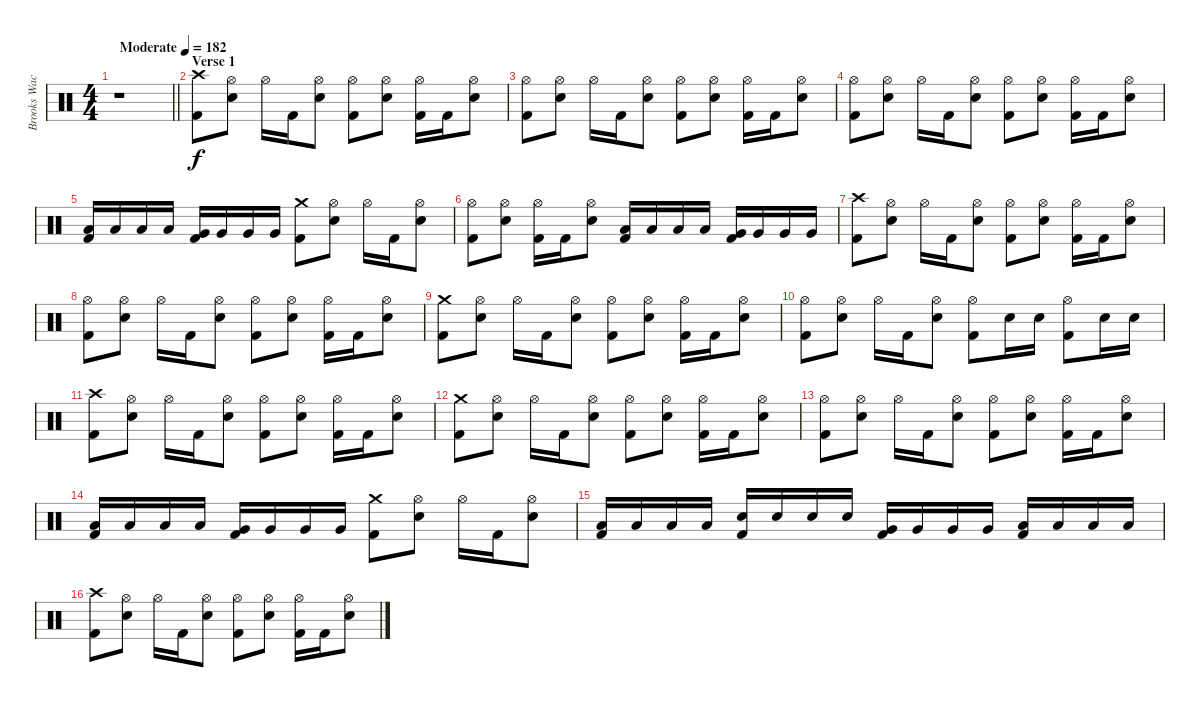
\track ("Brooks Wackerman" "Brooks Wac") {instrument percussion}
\staff {score}
\articulation defaults
\ts (4 4)
\tempo (182 "Moderate")
\clef neutral
\barLineRight lightlight
\ks c
r.1{dy f} |
\section ("" "Verse 1")
("Crash high (hit)" "Kick (hit) 2").8 ("Hi-Hat (open)" "Electric Snare (hit)").8 "Hi-Hat (open)".16 "Kick (hit) 2".16 ("Hi-Hat (open)" "Electric Snare (hit)").8 ("Hi-Hat (open)" "Kick (hit) 2").8 ("Hi-Hat (open)" "Electric Snare (hit)").8 ("Hi-Hat (open)" "Kick (hit) 2").16 "Kick (hit) 2".16 ("Hi-Hat (open)" "Electric Snare (hit)").8 |
("Hi-Hat (open)" "Kick (hit) 2").8 ("Hi-Hat (open)" "Electric Snare (hit)").8 "Hi-Hat (open)".16 "Kick (hit) 2".16 ("Hi-Hat (open)" "Electric Snare (hit)").8 ("Hi-Hat (open)" "Kick (hit) 2").8 ("Hi-Hat (open)" "Electric Snare (hit)").8 ("Hi-Hat (open)" "Kick (hit) 2").16 "Kick (hit) 2".16 ("Hi-Hat (open)" "Electric Snare (hit)").8 |
("Hi-Hat (open)" "Kick (hit) 2").8 ("Hi-Hat (open)" "Electric Snare (hit)").8 "Hi-Hat (open)".16 "Kick (hit) 2".16 ("Hi-Hat (open)" "Electric Snare (hit)").8 ("Hi-Hat (open)" "Kick (hit) 2").8 ("Hi-Hat (open)" "Electric Snare (hit)").8 ("Hi-Hat (open)" "Kick (hit) 2").16 "Kick (hit) 2".16 ("Hi-Hat (open)" "Electric Snare (hit)").8 |
("Low Tom (hit)" "Kick (hit) 2").16 "Low Tom (hit)".16 "Low Tom (hit)".16 "Low Tom (hit)".16 ("Very Low Tom (hit)" "Kick (hit) 2").16 "Very Low Tom (hit)".16 "Very Low Tom (hit)".16 "Very Low Tom (hit)".16 ("Crash medium (hit)" "Kick (hit) 2").8 ("Hi-Hat (open)" "Electric Snare (hit)").8 "Hi-Hat (open)".16 "Kick (hit) 2".16 ("Hi-Hat (open)" "Electric Snare (hit)").8 |
("Hi-Hat (open)" "Kick (hit) 2").8 ("Hi-Hat (open)" "Electric Snare (hit)").8 ("Hi-Hat (open)" "Kick (hit) 2").16 "Kick (hit) 2".16 ("Hi-Hat (open)" "Electric Snare (hit)").8 ("Low Tom (hit)" "Kick (hit) 2").16 "Low Tom (hit)".16 "Low Tom (hit)".16 "Low Tom (hit)".16 ("Very Low Tom (hit)" "Kick (hit) 2").16 "Very Low Tom (hit)".16 "Very Low Tom (hit)".16 "Very Low Tom (hit)".16 |
("Crash high (hit)" "Kick (hit) 2").8 ("Hi-Hat (open)" "Electric Snare (hit)").8 "Hi-Hat (open)".16 "Kick (hit) 2".16 ("Hi-Hat (open)" "Electric Snare (hit)").8 ("Hi-Hat (open)" "Kick (hit) 2").8 ("Hi-Hat (open)" "Electric Snare (hit)").8 ("Hi-Hat (open)" "Kick (hit) 2").16 "Kick (hit) 2".16 ("Hi-Hat (open)" "Electric Snare (hit)").8 |
("Hi-Hat (open)" "Kick (hit) 2").8 ("Hi-Hat (open)" "Electric Snare (hit)").8 "Hi-Hat (open)".16 "Kick (hit) 2".16 ("Hi-Hat (open)" "Electric Snare (hit)").8 ("Hi-Hat (open)" "Kick (hit) 2").8 ("Hi-Hat (open)" "Electric Snare (hit)").8 ("Hi-Hat (open)" "Kick (hit) 2").16 "Kick (hit) 2".16 ("Hi-Hat (open)" "Electric Snare (hit)").8 |
("Crash medium (hit)" "Kick (hit) 2").8 ("Hi-Hat (open)" "Electric Snare (hit)").8 "Hi-Hat (open)".16 "Kick (hit) 2".16 ("Hi-Hat (open)" "Electric Snare (hit)").8 ("Hi-Hat (open)" "Kick (hit) 2").8 ("Hi-Hat (open)" "Electric Snare (hit)").8 ("Hi-Hat (open)" "Kick (hit) 2").16 "Kick (hit) 2".16 ("Hi-Hat (open)" "Electric Snare (hit)").8 |
("Hi-Hat (open)" "Kick (hit) 2").8 ("Hi-Hat (open)" "Electric Snare (hit)").8 "Hi-Hat (open)".16 "Kick (hit) 2".16 ("Hi-Hat (open)" "Electric Snare (hit)").8 ("Hi-Hat (open)" "Kick (hit) 2").8 "Electric Snare (hit)".16 "Electric Snare (hit)".16 ("Hi-Hat (open)" "Kick (hit) 2").8 "Electric Snare (hit)".16 "Electric Snare (hit)".16 |
("Crash high (hit)" "Kick (hit) 2").8 ("Hi-Hat (open)" "Electric Snare (hit)").8 "Hi-Hat (open)".16 "Kick (hit) 2".16 ("Hi-Hat (open)" "Electric Snare (hit)").8 ("Hi-Hat (open)" "Kick (hit) 2").8 ("Hi-Hat (open)" "Electric Snare (hit)").8 ("Hi-Hat (open)" "Kick (hit) 2").16 "Kick (hit) 2".16 ("Hi-Hat (open)" "Electric Snare (hit)").8 |
("Crash medium (hit)" "Kick (hit) 2").8 ("Hi-Hat (open)" "Electric Snare (hit)").8 "Hi-Hat (open)".16 "Kick (hit) 2".16 ("Hi-Hat (open)" "Electric Snare (hit)").8 ("Hi-Hat (open)" "Kick (hit) 2").8 ("Hi-Hat (open)" "Electric Snare (hit)").8 ("Hi-Hat (open)" "Kick (hit) 2").16 "Kick (hit) 2".16 ("Hi-Hat (open)" "Electric Snare (hit)").8 |
("Hi-Hat (open)" "Kick (hit) 2").8 ("Hi-Hat (open)" "Electric Snare (hit)").8 "Hi-Hat (open)".16 "Kick (hit) 2".16 ("Hi-Hat (open)" "Electric Snare (hit)").8 ("Hi-Hat (open)" "Kick (hit) 2").8 ("Hi-Hat (open)" "Electric Snare (hit)").8 ("Hi-Hat (open)" "Kick (hit) 2").16 "Kick (hit) 2".16 ("Hi-Hat (open)" "Electric Snare (hit)").8 |
("Low Tom (hit)" "Kick (hit) 2").16 "Low Tom (hit)".16 "Low Tom (hit)".16 "Low Tom (hit)".16 ("Very Low Tom (hit)" "Kick (hit) 2").16 "Very Low Tom (hit)".16 "Very Low Tom (hit)".16 "Very Low Tom (hit)".16 ("Crash medium (hit)" "Kick (hit) 2").8 ("Hi-Hat (open)" "Electric Snare (hit)").8 "Hi-Hat (open)".16 "Kick (hit) 2".16 ("Hi-Hat (open)" "Electric Snare (hit)").8 |
("Low Tom (hit)" "Kick (hit) 2").16 "Low Tom (hit)".16 "Low Tom (hit)".16 "Low Tom (hit)".16 ("Electric Snare (hit)" "Kick (hit) 2").16 "Electric Snare (hit)".16 "Electric Snare (hit)".16 "Electric Snare (hit)".16 ("Very Low Tom (hit)" "Kick (hit) 2").16 "Very Low Tom (hit)".16 "Very Low Tom (hit)".16 "Very Low Tom (hit)".16 ("Low Floor Tom (hit)" "Kick (hit) 2").16 "Low Floor Tom (hit)".16 "Low Floor Tom (hit)".16 "Low Floor Tom (hit)".16 |
("Crash high (hit)" "Kick (hit) 2").8 ("Hi-Hat (open)" "Electric Snare (hit)").8 "Hi-Hat (open)".16 "Kick (hit) 2".16 ("Hi-Hat (open)" "Electric Snare (hit)").8 ("Hi-Hat (open)" "Kick (hit) 2").8 ("Hi-Hat (open)" "Electric Snare (hit)").8 ("Hi-Hat (open)" "Kick (hit) 2").16 "Kick (hit) 2".16 ("Hi-Hat (open)" "Electric Snare (hit)").8
